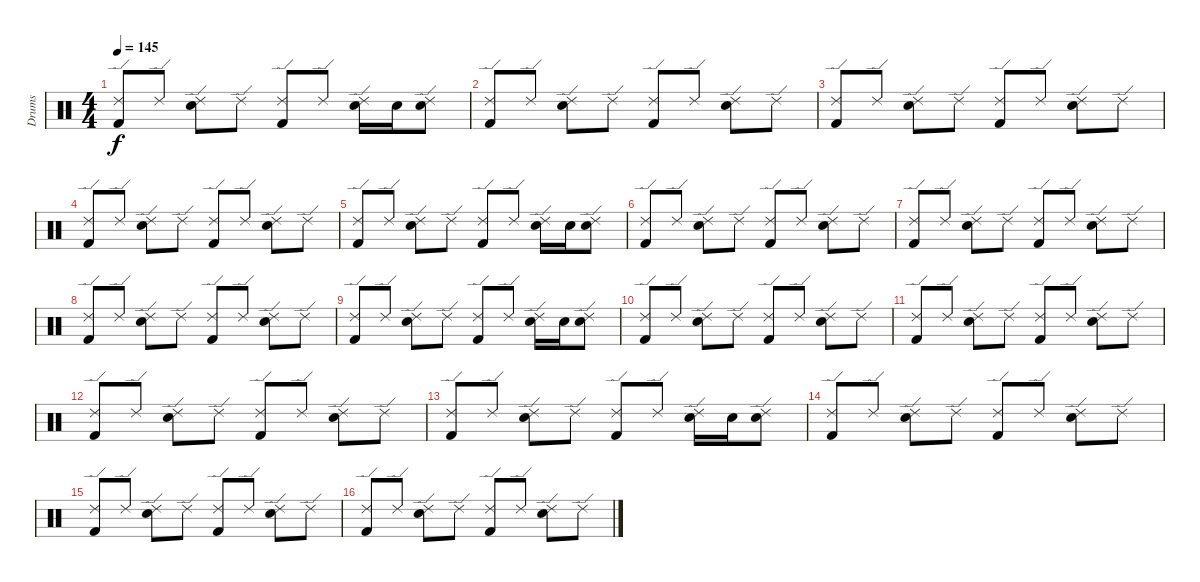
\track ("Drums" "Drums") {instrument percussion}
\staff {score}
\articulation defaults
\ts (4 4)
\tempo 145
\clef neutral
\ks c
("Kick (hit) 2" "Ride (edge) 2").8{dy f} "Ride (edge) 2".8 ("Electric Snare (hit)" "Ride (edge) 2").8 "Ride (edge) 2".8 ("Kick (hit) 2" "Ride (edge) 2").8 "Ride (edge) 2".8 ("Electric Snare (hit)" "Ride (edge) 2").16 "Electric Snare (hit)".16 ("Electric Snare (hit)" "Ride (edge) 2").8 |
("Kick (hit) 2" "Ride (edge) 2").8 "Ride (edge) 2".8 ("Electric Snare (hit)" "Ride (edge) 2").8 "Ride (edge) 2".8 ("Kick (hit) 2" "Ride (edge) 2").8 "Ride (edge) 2".8 ("Electric Snare (hit)" "Ride (edge) 2").8 "Ride (edge) 2".8 |
("Kick (hit) 2" "Ride (edge) 2").8 "Ride (edge) 2".8 ("Electric Snare (hit)" "Ride (edge) 2").8 "Ride (edge) 2".8 ("Kick (hit) 2" "Ride (edge) 2").8 "Ride (edge) 2".8 ("Electric Snare (hit)" "Ride (edge) 2").8 "Ride (edge) 2".8 |
("Kick (hit) 2" "Ride (edge) 2").8 "Ride (edge) 2".8 ("Electric Snare (hit)" "Ride (edge) 2").8 "Ride (edge) 2".8 ("Kick (hit) 2" "Ride (edge) 2").8 "Ride (edge) 2".8 ("Electric Snare (hit)" "Ride (edge) 2").8 "Ride (edge) 2".8 |
("Kick (hit) 2" "Ride (edge) 2").8 "Ride (edge) 2".8 ("Electric Snare (hit)" "Ride (edge) 2").8 "Ride (edge) 2".8 ("Kick (hit) 2" "Ride (edge) 2").8 "Ride (edge) 2".8 ("Electric Snare (hit)" "Ride (edge) 2").16 "Electric Snare (hit)".16 ("Electric Snare (hit)" "Ride (edge) 2").8 |
("Kick (hit) 2" "Ride (edge) 2").8 "Ride (edge) 2".8 ("Electric Snare (hit)" "Ride (edge) 2").8 "Ride (edge) 2".8 ("Kick (hit) 2" "Ride (edge) 2").8 "Ride (edge) 2".8 ("Electric Snare (hit)" "Ride (edge) 2").8 "Ride (edge) 2".8 |
("Kick (hit) 2" "Ride (edge) 2").8 "Ride (edge) 2".8 ("Electric Snare (hit)" "Ride (edge) 2").8 "Ride (edge) 2".8 ("Kick (hit) 2" "Ride (edge) 2").8 "Ride (edge) 2".8 ("Electric Snare (hit)" "Ride (edge) 2").8 "Ride (edge) 2".8 |
("Kick (hit) 2" "Ride (edge) 2").8 "Ride (edge) 2".8 ("Electric Snare (hit)" "Ride (edge) 2").8 "Ride (edge) 2".8 ("Kick (hit) 2" "Ride (edge) 2").8 "Ride (edge) 2".8 ("Electric Snare (hit)" "Ride (edge) 2").8 "Ride (edge) 2".8 |
("Kick (hit) 2" "Ride (edge) 2").8 "Ride (edge) 2".8 ("Electric Snare (hit)" "Ride (edge) 2").8 "Ride (edge) 2".8 ("Kick (hit) 2" "Ride (edge) 2").8 "Ride (edge) 2".8 ("Electric Snare (hit)" "Ride (edge) 2").16 "Electric Snare (hit)".16 ("Electric Snare (hit)" "Ride (edge) 2").8 |
("Kick (hit) 2" "Ride (edge) 2").8 "Ride (edge) 2".8 ("Electric Snare (hit)" "Ride (edge) 2").8 "Ride (edge) 2".8 ("Kick (hit) 2" "Ride (edge) 2").8 "Ride (edge) 2".8 ("Electric Snare (hit)" "Ride (edge) 2").8 "Ride (edge) 2".8 |
("Kick (hit) 2" "Ride (edge) 2").8 "Ride (edge) 2".8 ("Electric Snare (hit)" "Ride (edge) 2").8 "Ride (edge) 2".8 ("Kick (hit) 2" "Ride (edge) 2").8 "Ride (edge) 2".8 ("Electric Snare (hit)" "Ride (edge) 2").8 "Ride (edge) 2".8 |
("Kick (hit) 2" "Ride (edge) 2").8 "Ride (edge) 2".8 ("Electric Snare (hit)" "Ride (edge) 2").8 "Ride (edge) 2".8 ("Kick (hit) 2" "Ride (edge) 2").8 "Ride (edge) 2".8 ("Electric Snare (hit)" "Ride (edge) 2").8 "Ride (edge) 2".8 |
("Kick (hit) 2" "Ride (edge) 2").8 "Ride (edge) 2".8 ("Electric Snare (hit)" "Ride (edge) 2").8 "Ride (edge) 2".8 ("Kick (hit) 2" "Ride (edge) 2").8 "Ride (edge) 2".8 ("Electric Snare (hit)" "Ride (edge) 2").16 "Electric Snare (hit)".16 ("Electric Snare (hit)" "Ride (edge) 2").8 |
("Kick (hit) 2" "Ride (edge) 2").8 "Ride (edge) 2".8 ("Electric Snare (hit)" "Ride (edge) 2").8 "Ride (edge) 2".8 ("Kick (hit) 2" "Ride (edge) 2").8 "Ride (edge) 2".8 ("Electric Snare (hit)" "Ride (edge) 2").8 "Ride (edge) 2".8 |
("Kick (hit) 2" "Ride (edge) 2").8 "Ride (edge) 2".8 ("Electric Snare (hit)" "Ride (edge) 2").8 "Ride (edge) 2".8 ("Kick (hit) 2" "Ride (edge) 2").8 "Ride (edge) 2".8 ("Electric Snare (hit)" "Ride (edge) 2").8 "Ride (edge) 2".8 |
("Kick (hit) 2" "Ride (edge) 2").8 "Ride (edge) 2".8 ("Electric Snare (hit)" "Ride (edge) 2").8 "Ride (edge) 2".8 ("Kick (hit) 2" "Ride (edge) 2").8 "Ride (edge) 2".8 ("Electric Snare (hit)" "Ride (edge) 2").8 "Ride (edge) 2".8
